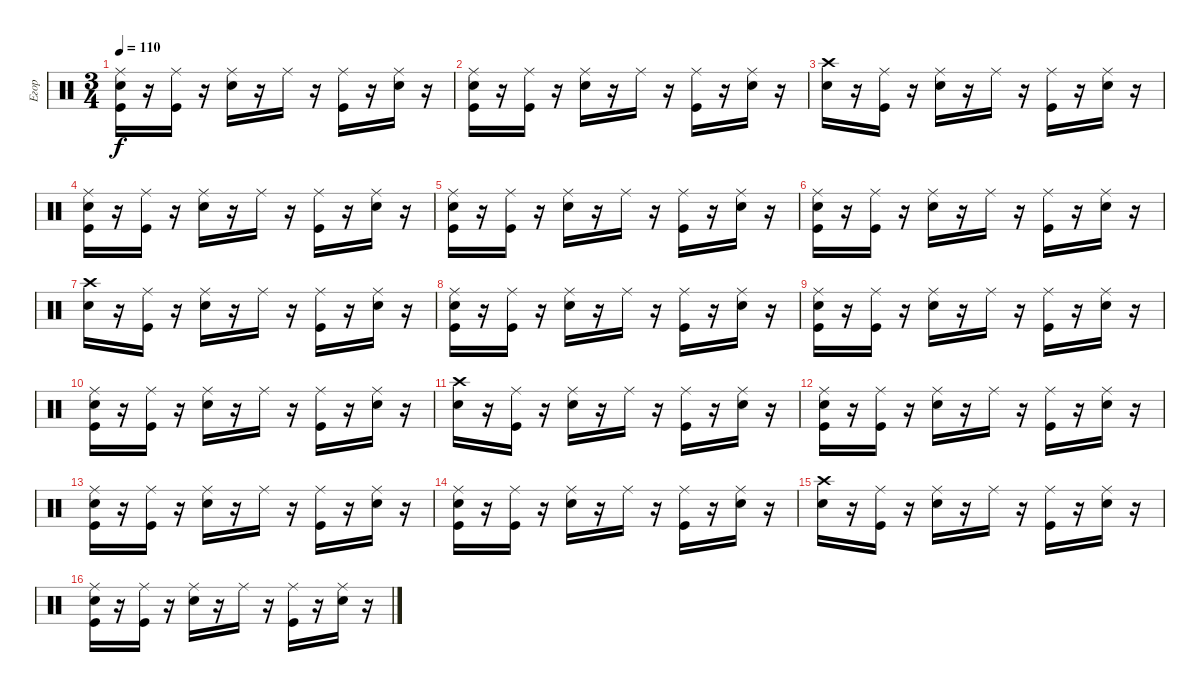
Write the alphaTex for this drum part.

\track ("Егор" "Егор") {instrument percussion}
\staff {score}
\articulation defaults
\ts (3 4)
\tempo 110
\clef neutral
\ks c
("Kick (hit)" "Ride (middle)" "Snare (hit) 2").16{dy f} r.16 ("Ride (middle)" "Kick (hit)").16 r.16 ("Snare (hit) 2" "Ride (middle)").16 r.16 "Ride (middle)".16 r.16 ("Ride (middle)" "Kick (hit)").16 r.16 ("Ride (middle)" "Snare (hit) 2").16 r.16 |
("Kick (hit)" "Ride (middle)" "Snare (hit) 2").16 r.16 ("Ride (middle)" "Kick (hit)").16 r.16 ("Snare (hit) 2" "Ride (middle)").16 r.16 "Ride (middle)".16 r.16 ("Ride (middle)" "Kick (hit)").16 r.16 ("Ride (middle)" "Snare (hit) 2").16 r.16 |
("Snare (hit) 2" "Crash high (hit)").16 r.16 ("Ride (middle)" "Kick (hit)").16 r.16 ("Snare (hit) 2" "Ride (middle)").16 r.16 "Ride (middle)".16 r.16 ("Ride (middle)" "Kick (hit)").16 r.16 ("Ride (middle)" "Snare (hit) 2").16 r.16 |
("Kick (hit)" "Ride (middle)" "Snare (hit) 2").16 r.16 ("Ride (middle)" "Kick (hit)").16 r.16 ("Snare (hit) 2" "Ride (middle)").16 r.16 "Ride (middle)".16 r.16 ("Ride (middle)" "Kick (hit)").16 r.16 ("Ride (middle)" "Snare (hit) 2").16 r.16 |
("Kick (hit)" "Ride (middle)" "Snare (hit) 2").16 r.16 ("Ride (middle)" "Kick (hit)").16 r.16 ("Snare (hit) 2" "Ride (middle)").16 r.16 "Ride (middle)".16 r.16 ("Ride (middle)" "Kick (hit)").16 r.16 ("Ride (middle)" "Snare (hit) 2").16 r.16 |
("Kick (hit)" "Ride (middle)" "Snare (hit) 2").16 r.16 ("Ride (middle)" "Kick (hit)").16 r.16 ("Snare (hit) 2" "Ride (middle)").16 r.16 "Ride (middle)".16 r.16 ("Ride (middle)" "Kick (hit)").16 r.16 ("Ride (middle)" "Snare (hit) 2").16 r.16 |
("Snare (hit) 2" "Crash high (hit)").16 r.16 ("Ride (middle)" "Kick (hit)").16 r.16 ("Snare (hit) 2" "Ride (middle)").16 r.16 "Ride (middle)".16 r.16 ("Ride (middle)" "Kick (hit)").16 r.16 ("Ride (middle)" "Snare (hit) 2").16 r.16 |
("Kick (hit)" "Ride (middle)" "Snare (hit) 2").16 r.16 ("Ride (middle)" "Kick (hit)").16 r.16 ("Snare (hit) 2" "Ride (middle)").16 r.16 "Ride (middle)".16 r.16 ("Ride (middle)" "Kick (hit)").16 r.16 ("Ride (middle)" "Snare (hit) 2").16 r.16 |
("Kick (hit)" "Ride (middle)" "Snare (hit) 2").16 r.16 ("Ride (middle)" "Kick (hit)").16 r.16 ("Snare (hit) 2" "Ride (middle)").16 r.16 "Ride (middle)".16 r.16 ("Ride (middle)" "Kick (hit)").16 r.16 ("Ride (middle)" "Snare (hit) 2").16 r.16 |
("Kick (hit)" "Ride (middle)" "Snare (hit) 2").16 r.16 ("Ride (middle)" "Kick (hit)").16 r.16 ("Snare (hit) 2" "Ride (middle)").16 r.16 "Ride (middle)".16 r.16 ("Ride (middle)" "Kick (hit)").16 r.16 ("Ride (middle)" "Snare (hit) 2").16 r.16 |
("Snare (hit) 2" "Crash high (hit)").16 r.16 ("Ride (middle)" "Kick (hit)").16 r.16 ("Snare (hit) 2" "Ride (middle)").16 r.16 "Ride (middle)".16 r.16 ("Ride (middle)" "Kick (hit)").16 r.16 ("Ride (middle)" "Snare (hit) 2").16 r.16 |
("Kick (hit)" "Ride (middle)" "Snare (hit) 2").16 r.16 ("Ride (middle)" "Kick (hit)").16 r.16 ("Snare (hit) 2" "Ride (middle)").16 r.16 "Ride (middle)".16 r.16 ("Ride (middle)" "Kick (hit)").16 r.16 ("Ride (middle)" "Snare (hit) 2").16 r.16 |
("Kick (hit)" "Ride (middle)" "Snare (hit) 2").16 r.16 ("Ride (middle)" "Kick (hit)").16 r.16 ("Snare (hit) 2" "Ride (middle)").16 r.16 "Ride (middle)".16 r.16 ("Ride (middle)" "Kick (hit)").16 r.16 ("Ride (middle)" "Snare (hit) 2").16 r.16 |
("Kick (hit)" "Ride (middle)" "Snare (hit) 2").16 r.16 ("Ride (middle)" "Kick (hit)").16 r.16 ("Snare (hit) 2" "Ride (middle)").16 r.16 "Ride (middle)".16 r.16 ("Ride (middle)" "Kick (hit)").16 r.16 ("Ride (middle)" "Snare (hit) 2").16 r.16 |
("Snare (hit) 2" "Crash high (hit)").16 r.16 ("Ride (middle)" "Kick (hit)").16 r.16 ("Snare (hit) 2" "Ride (middle)").16 r.16 "Ride (middle)".16 r.16 ("Ride (middle)" "Kick (hit)").16 r.16 ("Ride (middle)" "Snare (hit) 2").16 r.16 |
("Kick (hit)" "Ride (middle)" "Snare (hit) 2").16 r.16 ("Ride (middle)" "Kick (hit)").16 r.16 ("Snare (hit) 2" "Ride (middle)").16 r.16 "Ride (middle)".16 r.16 ("Ride (middle)" "Kick (hit)").16 r.16 ("Ride (middle)" "Snare (hit) 2").16 r.16
